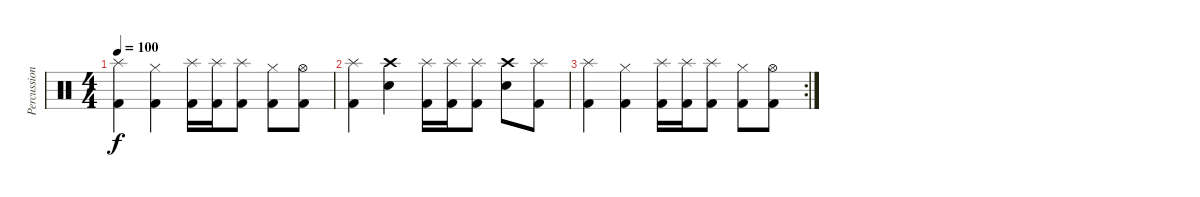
\track ("Percussions" "Percussion") {instrument percussion}
\staff {score}
\articulation defaults
\ts (4 4)
\tempo 100
\clef neutral
\ks c
("Splash (hit)" "Kick (hit) 2").4{dy f} ("Hi-Hat (closed)" "Kick (hit) 2").4 ("Splash (hit)" "Kick (hit) 2").16 ("Splash (hit)" "Kick (hit) 2").16 ("Splash (hit)" "Kick (hit) 2").8 ("Hi-Hat (closed)" "Kick (hit) 2").8 ("Hi-Hat (open)" "Kick (hit) 2").8 |
("Splash (hit)" "Kick (hit) 2").4 ("Crash high (hit)" "Snare (hit) 2").4 ("Splash (hit)" "Kick (hit) 2").16 ("Splash (hit)" "Kick (hit) 2").16 ("Splash (hit)" "Kick (hit) 2").8 ("Crash high (hit)" "Snare (hit) 2").8 ("Splash (hit)" "Kick (hit) 2").8 |
\rc 2
("Splash (hit)" "Kick (hit) 2").4 ("Hi-Hat (closed)" "Kick (hit) 2").4 ("Splash (hit)" "Kick (hit) 2").16 ("Splash (hit)" "Kick (hit) 2").16 ("Splash (hit)" "Kick (hit) 2").8 ("Hi-Hat (closed)" "Kick (hit) 2").8 ("Hi-Hat (open)" "Kick (hit) 2").8
